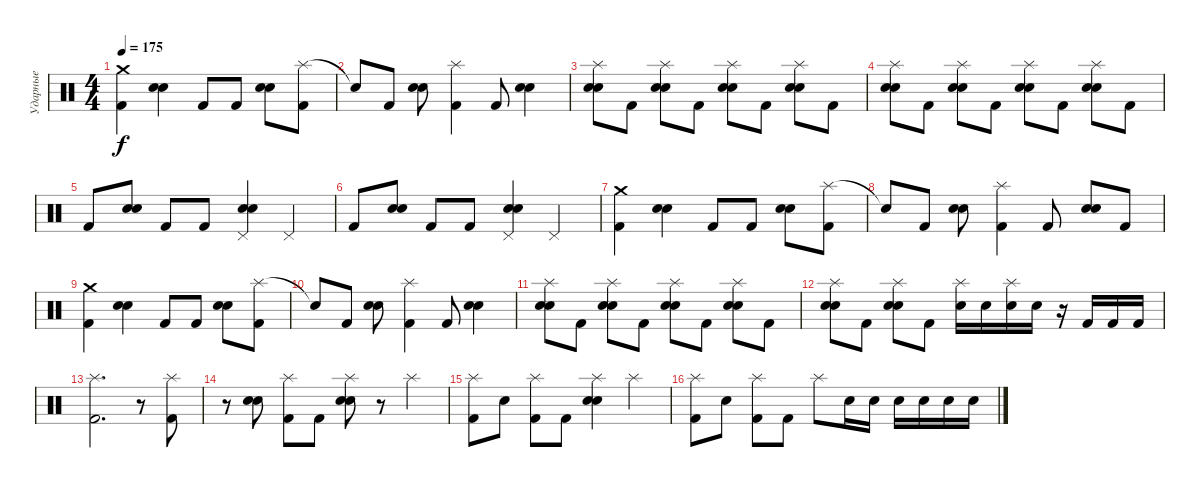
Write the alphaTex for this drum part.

\track ("Ударные" "Ударные") {instrument percussion}
\staff {score}
\articulation defaults
\ts (4 4)
\tempo 175
\clef neutral
\ks c
("Crash medium (hit)" "Kick (hit) 2").4{dy f} ("Electric Snare (hit)" "Snare (hit) 2").4 "Kick (hit) 2".8 "Kick (hit) 2".8 ("Electric Snare (hit)" "Snare (hit) 2").8 ("Splash (hit)" "Kick (hit) 2").8 |
"Snare (hit)"{t}.8 "Kick (hit) 2".8 ("Electric Snare (hit)" "Snare (hit) 2").8 ("Splash (hit)" "Kick (hit) 2").4 "Kick (hit) 2".8 ("Electric Snare (hit)" "Snare (hit) 2").4 |
("Splash (hit)" "Electric Snare (hit)" "Snare (hit) 2").8 "Kick (hit) 2".8 ("Splash (hit)" "Electric Snare (hit)" "Snare (hit) 2").8 "Kick (hit) 2".8 ("Splash (hit)" "Electric Snare (hit)" "Snare (hit) 2").8 "Kick (hit) 2".8 ("Splash (hit)" "Electric Snare (hit)" "Snare (hit) 2").8 "Kick (hit) 2".8 |
("Splash (hit)" "Electric Snare (hit)" "Snare (hit) 2").8 "Kick (hit) 2".8 ("Splash (hit)" "Electric Snare (hit)" "Snare (hit) 2").8 "Kick (hit) 2".8 ("Splash (hit)" "Electric Snare (hit)" "Snare (hit) 2").8 "Kick (hit) 2".8 ("Splash (hit)" "Electric Snare (hit)" "Snare (hit) 2").8 "Kick (hit) 2".8 |
"Kick (hit) 2".8 ("Electric Snare (hit)" "Snare (hit) 2").8 "Kick (hit) 2".8 "Kick (hit) 2".8 ("Pedal Hi-Hat (hit)" "Electric Snare (hit)" "Snare (hit) 2").4 "Pedal Hi-Hat (hit)".4 |
"Kick (hit) 2".8 ("Electric Snare (hit)" "Snare (hit) 2").8 "Kick (hit) 2".8 "Kick (hit) 2".8 ("Pedal Hi-Hat (hit)" "Electric Snare (hit)" "Snare (hit) 2").4 "Pedal Hi-Hat (hit)".4 |
("Crash medium (hit)" "Kick (hit) 2").4 ("Electric Snare (hit)" "Snare (hit) 2").4 "Kick (hit) 2".8 "Kick (hit) 2".8 ("Electric Snare (hit)" "Snare (hit) 2").8 ("Splash (hit)" "Kick (hit) 2").8 |
"Snare (hit)"{t}.8 "Kick (hit) 2".8 ("Electric Snare (hit)" "Snare (hit) 2").8 ("Splash (hit)" "Kick (hit) 2").4 "Kick (hit) 2".8 ("Electric Snare (hit)" "Snare (hit) 2").8 "Kick (hit) 2".8 |
("Crash medium (hit)" "Kick (hit) 2").4 ("Electric Snare (hit)" "Snare (hit) 2").4 "Kick (hit) 2".8 "Kick (hit) 2".8 ("Electric Snare (hit)" "Snare (hit) 2").8 ("Splash (hit)" "Kick (hit) 2").8 |
"Snare (hit)"{t}.8 "Kick (hit) 2".8 ("Electric Snare (hit)" "Snare (hit) 2").8 ("Splash (hit)" "Kick (hit) 2").4 "Kick (hit) 2".8 ("Electric Snare (hit)" "Snare (hit) 2").4 |
("Splash (hit)" "Electric Snare (hit)" "Snare (hit) 2").8 "Kick (hit) 2".8 ("Splash (hit)" "Electric Snare (hit)" "Snare (hit) 2").8 "Kick (hit) 2".8 ("Splash (hit)" "Electric Snare (hit)" "Snare (hit) 2").8 "Kick (hit) 2".8 ("Splash (hit)" "Electric Snare (hit)" "Snare (hit) 2").8 "Kick (hit) 2".8 |
("Splash (hit)" "Electric Snare (hit)" "Snare (hit) 2").8 "Kick (hit) 2".8 ("Splash (hit)" "Electric Snare (hit)" "Snare (hit) 2").8 "Kick (hit) 2".8 ("Splash (hit)" "Electric Snare (hit)").16 "Electric Snare (hit)".16 ("Splash (hit)" "Electric Snare (hit)").16 "Electric Snare (hit)".16 r.16 "Kick (hit) 2".16 "Kick (hit) 2".16 "Kick (hit) 2".16 |
("Splash (hit)" "Kick (hit) 2").2{d} r.8 ("Splash (hit)" "Kick (hit) 2").8 |
r.8 ("Electric Snare (hit)" "Snare (hit) 2").8 ("Splash (hit)" "Kick (hit) 2").8 "Kick (hit) 2".8 ("Splash (hit)" "Electric Snare (hit)" "Snare (hit) 2").8 r.8 "Splash (hit)".4 |
("Splash (hit)" "Kick (hit) 2").8 "Electric Snare (hit)".8 ("Splash (hit)" "Kick (hit) 2").8 "Kick (hit) 2".8 ("Splash (hit)" "Electric Snare (hit)" "Snare (hit) 2").4 "Splash (hit)".4 |
("Splash (hit)" "Kick (hit) 2").8 "Electric Snare (hit)".8 ("Splash (hit)" "Kick (hit) 2").8 "Kick (hit) 2".8 "Splash (hit)".8 "Electric Snare (hit)".16 "Electric Snare (hit)".16 "Electric Snare (hit)".16 "Electric Snare (hit)".16 "Electric Snare (hit)".16 "Electric Snare (hit)".16
